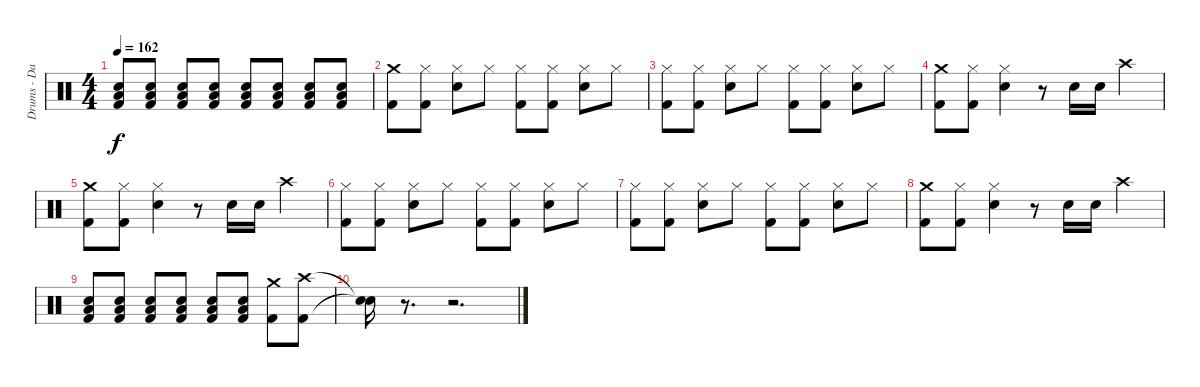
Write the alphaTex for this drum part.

\track ("Drums - David Holland" "Drums - Da") {instrument percussion}
\staff {score}
\articulation defaults
\ts (4 4)
\tempo 162
\clef neutral
\ks c
("Low Floor Tom (hit)" "Snare (hit) 2" "Kick (hit) 2").8{dy f} ("Low Floor Tom (hit)" "Snare (hit) 2" "Kick (hit) 2").8 ("Low Floor Tom (hit)" "Snare (hit) 2" "Kick (hit) 2").8 ("Low Floor Tom (hit)" "Snare (hit) 2" "Kick (hit) 2").8 ("Low Floor Tom (hit)" "Snare (hit) 2" "Kick (hit) 2").8 ("Low Floor Tom (hit)" "Snare (hit) 2" "Kick (hit) 2").8 ("Low Floor Tom (hit)" "Snare (hit) 2" "Kick (hit) 2").8 ("Low Floor Tom (hit)" "Snare (hit) 2" "Kick (hit) 2").8 |
("Crash medium (hit)" "Kick (hit) 2").8 ("Hi-Hat (closed)" "Kick (hit) 2").8 ("Hi-Hat (closed)" "Snare (hit) 2").8 "Hi-Hat (closed)".8 ("Hi-Hat (closed)" "Kick (hit) 2").8 ("Hi-Hat (closed)" "Kick (hit) 2").8 ("Hi-Hat (closed)" "Snare (hit) 2").8 "Hi-Hat (closed)".8 |
("Hi-Hat (closed)" "Kick (hit) 2").8 ("Hi-Hat (closed)" "Kick (hit) 2").8 ("Hi-Hat (closed)" "Snare (hit) 2").8 "Hi-Hat (closed)".8 ("Hi-Hat (closed)" "Kick (hit) 2").8 ("Hi-Hat (closed)" "Kick (hit) 2").8 ("Hi-Hat (closed)" "Snare (hit) 2").8 "Hi-Hat (closed)".8 |
("Crash medium (hit)" "Kick (hit) 2").8 ("Hi-Hat (closed)" "Kick (hit) 2").8 ("Hi-Hat (closed)" "Snare (hit) 2").4 r.8 "Snare (hit) 2".16 "Snare (hit) 2".16 "Crash high (hit)".4 |
("Crash medium (hit)" "Kick (hit) 2").8 ("Hi-Hat (closed)" "Kick (hit) 2").8 ("Hi-Hat (closed)" "Snare (hit) 2").4 r.8 "Snare (hit) 2".16 "Snare (hit) 2".16 "Crash high (hit)".4 |
("Hi-Hat (closed)" "Kick (hit) 2").8 ("Hi-Hat (closed)" "Kick (hit) 2").8 ("Hi-Hat (closed)" "Snare (hit) 2").8 "Hi-Hat (closed)".8 ("Hi-Hat (closed)" "Kick (hit) 2").8 ("Hi-Hat (closed)" "Kick (hit) 2").8 ("Hi-Hat (closed)" "Snare (hit) 2").8 "Hi-Hat (closed)".8 |
("Hi-Hat (closed)" "Kick (hit) 2").8 ("Hi-Hat (closed)" "Kick (hit) 2").8 ("Hi-Hat (closed)" "Snare (hit) 2").8 "Hi-Hat (closed)".8 ("Hi-Hat (closed)" "Kick (hit) 2").8 ("Hi-Hat (closed)" "Kick (hit) 2").8 ("Hi-Hat (closed)" "Snare (hit) 2").8 "Hi-Hat (closed)".8 |
("Crash medium (hit)" "Kick (hit) 2").8 ("Hi-Hat (closed)" "Kick (hit) 2").8 ("Hi-Hat (closed)" "Snare (hit) 2").4 r.8 "Snare (hit) 2".16 "Snare (hit) 2".16 "Crash high (hit)".4 |
("Low Floor Tom (hit)" "Snare (hit) 2" "Kick (hit) 2").8 ("Low Floor Tom (hit)" "Snare (hit) 2" "Kick (hit) 2").8 ("Low Floor Tom (hit)" "Snare (hit) 2" "Kick (hit) 2").8 ("Low Floor Tom (hit)" "Snare (hit) 2" "Kick (hit) 2").8 ("Low Floor Tom (hit)" "Snare (hit) 2" "Kick (hit) 2").8 ("Low Floor Tom (hit)" "Snare (hit) 2" "Kick (hit) 2").8 ("Crash medium (hit)" "Kick (hit) 2").8 ("Crash high (hit)" "Kick (hit) 2").8 |
("Snare (hit)"{t} "Snare (hit)"{t}).16 r.8{d} r.2{d}
